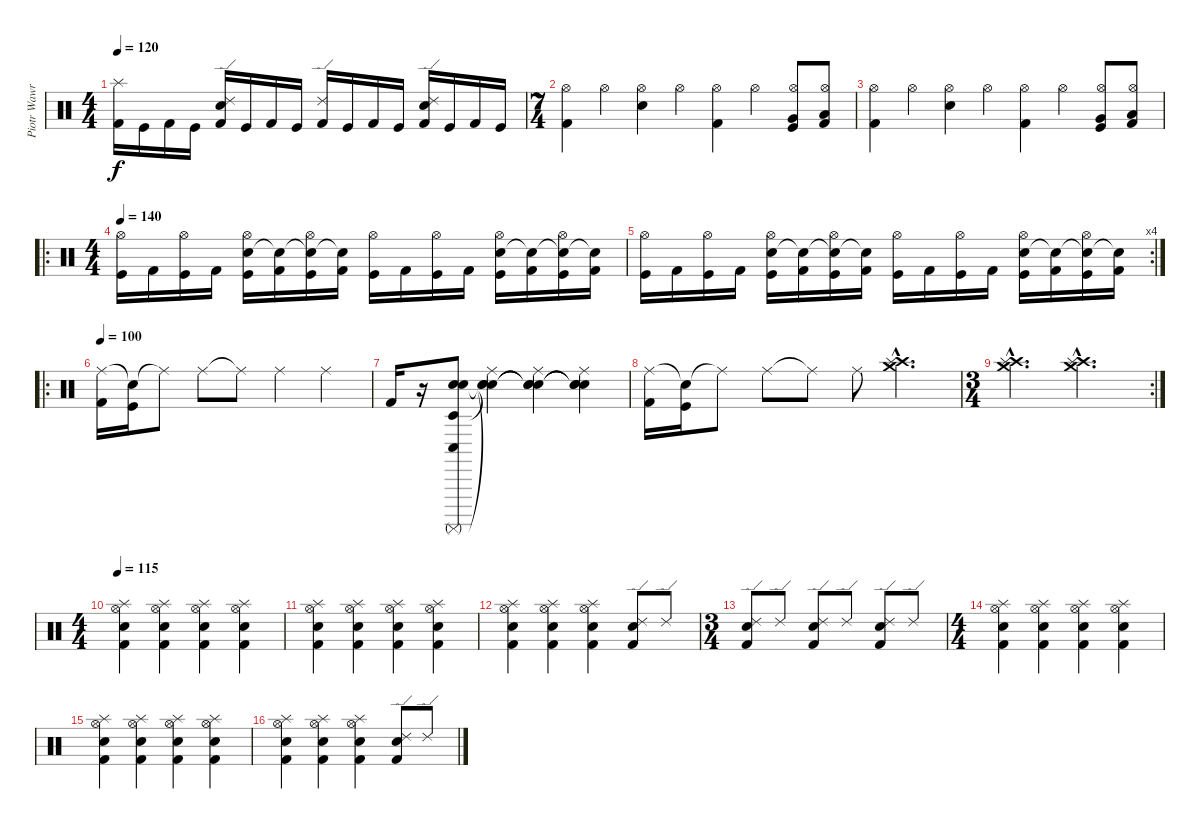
\track ("Piotr Wawrzeniuk" "Piotr Wawr") {instrument percussion}
\staff {score}
\articulation defaults
\ts (4 4)
\tempo 120
\clef neutral
\ks c
("Splash (hit)" "Kick (hit) 2").16{dy f} "Kick (hit)".16 "Kick (hit) 2".16 "Kick (hit)".16 ("Ride (edge) 2" "Electric Snare (hit)" "Kick (hit) 2").16 "Kick (hit)".16 "Kick (hit) 2".16 "Kick (hit)".16 ("Ride (edge) 2" "Kick (hit) 2").16 "Kick (hit)".16 "Kick (hit) 2".16 "Kick (hit)".16 ("Ride (edge) 2" "Electric Snare (hit)" "Kick (hit) 2").16 "Kick (hit)".16 "Kick (hit) 2".16 "Kick (hit)".16 |
\ts (7 4)
("Hi-Hat (open)" "Kick (hit) 2").4 "Hi-Hat (open)".4 ("Hi-Hat (open)" "Electric Snare (hit)").4 "Hi-Hat (open)".4 ("Hi-Hat (open)" "Kick (hit) 2").4 "Hi-Hat (open)".4 ("Hi-Hat (open)" "Very Low Tom (hit)" "Kick (hit)").8 ("Hi-Hat (open)" "Low Floor Tom (hit)" "Kick (hit) 2").8 |
("Hi-Hat (open)" "Kick (hit) 2").4 "Hi-Hat (open)".4 ("Hi-Hat (open)" "Electric Snare (hit)").4 "Hi-Hat (open)".4 ("Hi-Hat (open)" "Kick (hit) 2").4 "Hi-Hat (open)".4 ("Hi-Hat (open)" "Very Low Tom (hit)" "Kick (hit)").8 ("Hi-Hat (open)" "Low Floor Tom (hit)" "Kick (hit) 2").8 |
\ro
\ts (4 4)
\tempo 140
("Hi-Hat (open)" "Kick (hit)").16 "Kick (hit) 2".16 ("Hi-Hat (open)" "Kick (hit)").16 "Kick (hit) 2".16 ("Electric Snare (hit)" "Hi-Hat (open)" "Kick (hit)").16 ("Snare (hit)"{t} "Kick (hit) 2").16 ("Electric Snare (hit)"{t} "Hi-Hat (open)" "Kick (hit)").16 ("Snare (hit)"{t} "Kick (hit) 2").16 ("Hi-Hat (open)" "Kick (hit)").16 "Kick (hit) 2".16 ("Hi-Hat (open)" "Kick (hit)").16 "Kick (hit) 2".16 ("Electric Snare (hit)" "Hi-Hat (open)" "Kick (hit)").16 ("Snare (hit)"{t} "Kick (hit) 2").16 ("Electric Snare (hit)"{t} "Hi-Hat (open)" "Kick (hit)").16 ("Snare (hit)"{t} "Kick (hit) 2").16 |
\rc 4
("Hi-Hat (open)" "Kick (hit)").16 "Kick (hit) 2".16 ("Hi-Hat (open)" "Kick (hit)").16 "Kick (hit) 2".16 ("Electric Snare (hit)" "Hi-Hat (open)" "Kick (hit)").16 ("Snare (hit)"{t} "Kick (hit) 2").16 ("Electric Snare (hit)"{t} "Hi-Hat (open)" "Kick (hit)").16 ("Snare (hit)"{t} "Kick (hit) 2").16 ("Hi-Hat (open)" "Kick (hit)").16 "Kick (hit) 2".16 ("Hi-Hat (open)" "Kick (hit)").16 "Kick (hit) 2".16 ("Electric Snare (hit)" "Hi-Hat (open)" "Kick (hit)").16 ("Snare (hit)"{t} "Kick (hit) 2").16 ("Electric Snare (hit)"{t} "Hi-Hat (open)" "Kick (hit)").16 ("Snare (hit)"{t} "Kick (hit) 2").16 |
\ro
\tempo 100
("Ride (middle)" "Kick (hit) 2").16 ("Snare (hit)"{t} "Kick (hit)").16 "Ride (middle)"{t}.8 "Ride (middle)".8 "Ride (middle)"{t}.8 "Ride (middle)".4 "Ride (middle)".4 |
"Kick (hit) 2".16 r.16 ("Surdo (mute)" "Electric Snare (hit)" "Snare (hit) 2" "Timbale low (hit)" "Conga low (hit)").8 ("Snare (hit)"{t} "Ride (middle)" "Snare (hit)"{t} "Snare (hit)"{t}).4 ("Snare (hit)"{t} "Ride (middle)" "Snare (hit)"{t} "Snare (hit)"{t}).4 ("Snare (hit)"{t} "Ride (middle)" "Snare (hit)"{t} "Snare (hit)"{t}).4 |
("Ride (middle)" "Kick (hit) 2").16 ("Snare (hit)"{t} "Kick (hit)").16 "Ride (middle)"{t}.8 "Ride (middle)".8 "Ride (middle)"{t}.8 "Ride (middle)".8 ("Crash high (hit)"{hac} "Crash medium (hit)"{hac} "Splash (hit)"{hac}).4{d} |
\rc 2
\ts (3 4)
("Crash high (hit)"{hac} "Crash medium (hit)"{hac} "Splash (hit)"{hac}).4{d} ("Crash high (hit)"{hac} "Crash medium (hit)"{hac} "Splash (hit)"{hac}).4{d} |
\ts (4 4)
\tempo 115
("Splash (hit)" "Electric Snare (hit)" "Hi-Hat (open)" "Kick (hit) 2").4 ("Splash (hit)" "Electric Snare (hit)" "Hi-Hat (open)" "Kick (hit) 2").4 ("Splash (hit)" "Electric Snare (hit)" "Hi-Hat (open)" "Kick (hit) 2").4 ("Splash (hit)" "Electric Snare (hit)" "Hi-Hat (open)" "Kick (hit) 2").4 |
("Splash (hit)" "Electric Snare (hit)" "Hi-Hat (open)" "Kick (hit) 2").4 ("Splash (hit)" "Electric Snare (hit)" "Hi-Hat (open)" "Kick (hit) 2").4 ("Splash (hit)" "Electric Snare (hit)" "Hi-Hat (open)" "Kick (hit) 2").4 ("Splash (hit)" "Electric Snare (hit)" "Hi-Hat (open)" "Kick (hit) 2").4 |
("Splash (hit)" "Electric Snare (hit)" "Hi-Hat (open)" "Kick (hit) 2").4 ("Splash (hit)" "Electric Snare (hit)" "Hi-Hat (open)" "Kick (hit) 2").4 ("Splash (hit)" "Electric Snare (hit)" "Hi-Hat (open)" "Kick (hit) 2").4 ("Ride (edge) 2" "Electric Snare (hit)" "Kick (hit) 2").8 "Ride (edge) 2".8 |
\ts (3 4)
("Ride (edge) 2" "Electric Snare (hit)" "Kick (hit) 2").8 "Ride (edge) 2".8 ("Ride (edge) 2" "Electric Snare (hit)" "Kick (hit) 2").8 "Ride (edge) 2".8 ("Ride (edge) 2" "Electric Snare (hit)" "Kick (hit) 2").8 "Ride (edge) 2".8 |
\ts (4 4)
("Splash (hit)" "Electric Snare (hit)" "Hi-Hat (open)" "Kick (hit) 2").4 ("Splash (hit)" "Electric Snare (hit)" "Hi-Hat (open)" "Kick (hit) 2").4 ("Splash (hit)" "Electric Snare (hit)" "Hi-Hat (open)" "Kick (hit) 2").4 ("Splash (hit)" "Electric Snare (hit)" "Hi-Hat (open)" "Kick (hit) 2").4 |
("Splash (hit)" "Electric Snare (hit)" "Hi-Hat (open)" "Kick (hit) 2").4 ("Splash (hit)" "Electric Snare (hit)" "Hi-Hat (open)" "Kick (hit) 2").4 ("Splash (hit)" "Electric Snare (hit)" "Hi-Hat (open)" "Kick (hit) 2").4 ("Splash (hit)" "Electric Snare (hit)" "Hi-Hat (open)" "Kick (hit) 2").4 |
("Splash (hit)" "Electric Snare (hit)" "Hi-Hat (open)" "Kick (hit) 2").4 ("Splash (hit)" "Electric Snare (hit)" "Hi-Hat (open)" "Kick (hit) 2").4 ("Splash (hit)" "Electric Snare (hit)" "Hi-Hat (open)" "Kick (hit) 2").4 ("Ride (edge) 2" "Electric Snare (hit)" "Kick (hit) 2").8 "Ride (edge) 2".8
